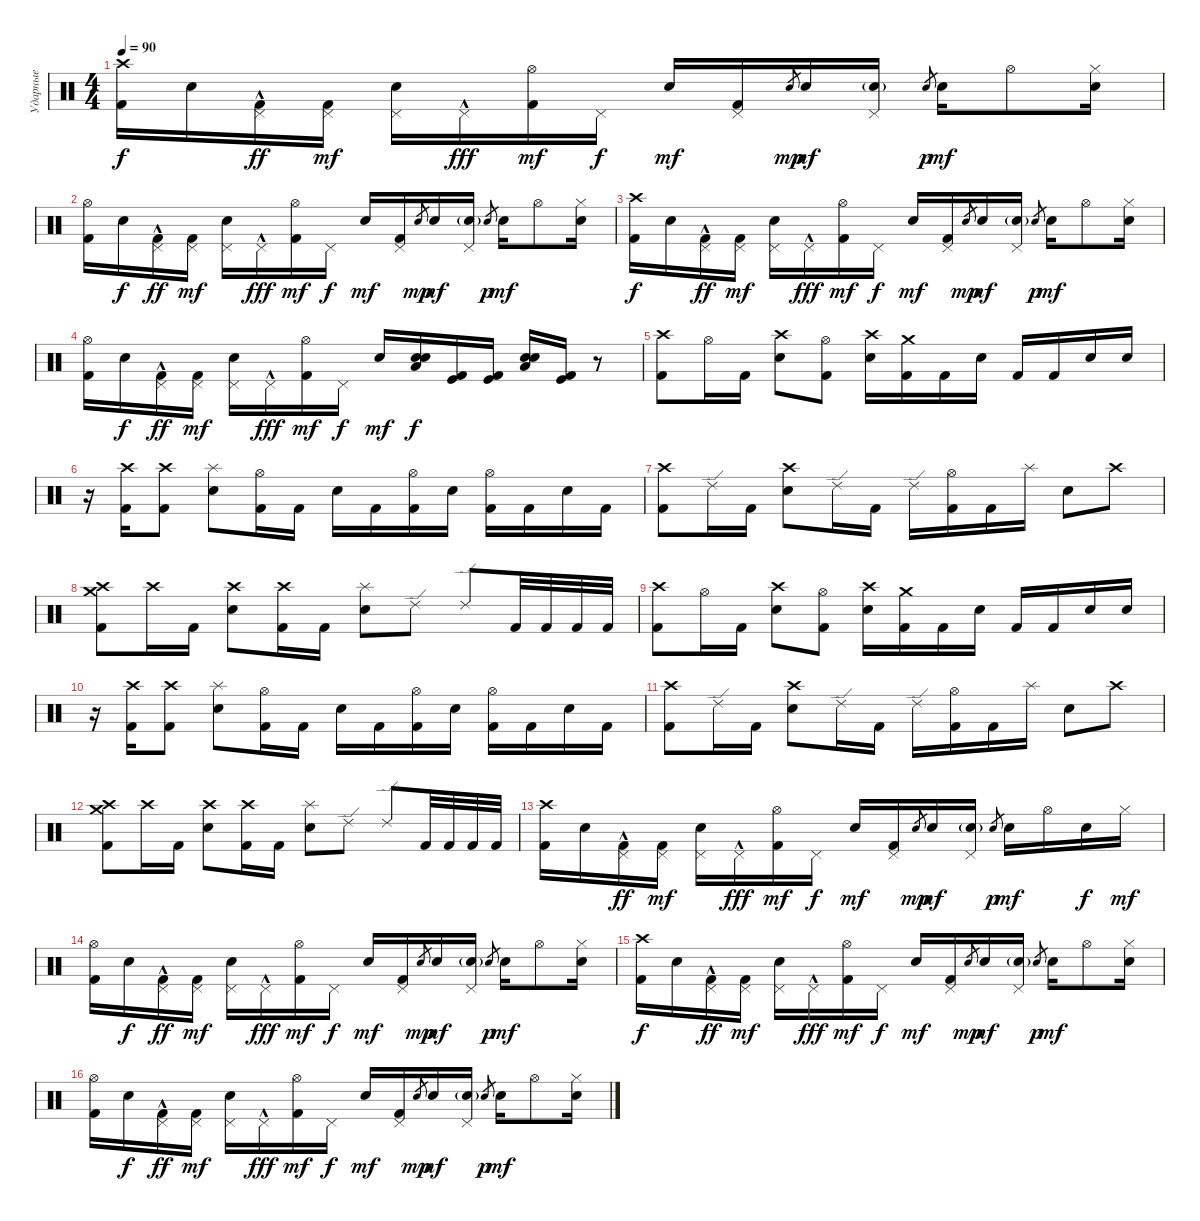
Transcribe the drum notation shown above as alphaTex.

\track ("Ударные" "Ударные") {instrument percussion}
\staff {score}
\articulation defaults
\ts (4 4)
\tempo 90
\clef neutral
\ks c
("Kick (hit) 2" "Crash high (hit)").16{dy f} "Electric Snare (hit)".16 ("Kick (hit) 2" "Pedal Hi-Hat (hit)"{hac}).16{dy ff} ("Kick (hit) 2" "Pedal Hi-Hat (hit)").16{dy mf} ("Electric Snare (hit)" "Pedal Hi-Hat (hit)").16 "Pedal Hi-Hat (hit)"{hac}.16{dy fff} ("Kick (hit) 2" "Hi-Hat (open)").16{dy mf} "Pedal Hi-Hat (hit)".16{dy f} "Electric Snare (hit)".16{dy mf} ("Kick (hit) 2" "Pedal Hi-Hat (hit)").16 "Electric Snare (hit)".8{gr dy mp} "Electric Snare (hit)".16{dy mf} ("Electric Snare (hit)"{g} "Pedal Hi-Hat (hit)").16 "Electric Snare (hit)".8{gr dy p} "Electric Snare (hit)".16{dy mf} "Hi-Hat (open)".8 ("Electric Snare (hit)" "Hi-Hat (closed)").16 |
("Kick (hit) 2" "Hi-Hat (open)").16 "Electric Snare (hit)".16{dy f} ("Kick (hit) 2" "Pedal Hi-Hat (hit)"{hac}).16{dy ff} ("Kick (hit) 2" "Pedal Hi-Hat (hit)").16{dy mf} ("Electric Snare (hit)" "Pedal Hi-Hat (hit)").16 "Pedal Hi-Hat (hit)"{hac}.16{dy fff} ("Kick (hit) 2" "Hi-Hat (open)").16{dy mf} "Pedal Hi-Hat (hit)".16{dy f} "Electric Snare (hit)".16{dy mf} ("Kick (hit) 2" "Pedal Hi-Hat (hit)").16 "Electric Snare (hit)".8{gr dy mp} "Electric Snare (hit)".16{dy mf} ("Electric Snare (hit)"{g} "Pedal Hi-Hat (hit)").16 "Electric Snare (hit)".8{gr dy p} "Electric Snare (hit)".16{dy mf} "Hi-Hat (open)".8 ("Electric Snare (hit)" "Hi-Hat (closed)").16 |
("Kick (hit) 2" "Crash high (hit)").16{dy f} "Electric Snare (hit)".16 ("Kick (hit) 2" "Pedal Hi-Hat (hit)"{hac}).16{dy ff} ("Kick (hit) 2" "Pedal Hi-Hat (hit)").16{dy mf} ("Electric Snare (hit)" "Pedal Hi-Hat (hit)").16 "Pedal Hi-Hat (hit)"{hac}.16{dy fff} ("Kick (hit) 2" "Hi-Hat (open)").16{dy mf} "Pedal Hi-Hat (hit)".16{dy f} "Electric Snare (hit)".16{dy mf} ("Kick (hit) 2" "Pedal Hi-Hat (hit)").16 "Electric Snare (hit)".8{gr dy mp} "Electric Snare (hit)".16{dy mf} ("Electric Snare (hit)"{g} "Pedal Hi-Hat (hit)").16 "Electric Snare (hit)".8{gr dy p} "Electric Snare (hit)".16{dy mf} "Hi-Hat (open)".8 ("Electric Snare (hit)" "Hi-Hat (closed)").16 |
("Kick (hit) 2" "Hi-Hat (open)").16 "Electric Snare (hit)".16{dy f} ("Kick (hit) 2" "Pedal Hi-Hat (hit)"{hac}).16{dy ff} ("Kick (hit) 2" "Pedal Hi-Hat (hit)").16{dy mf} ("Electric Snare (hit)" "Pedal Hi-Hat (hit)").16 "Pedal Hi-Hat (hit)"{hac}.16{dy fff} ("Kick (hit) 2" "Hi-Hat (open)").16{dy mf} "Pedal Hi-Hat (hit)".16{dy f} "Electric Snare (hit)".16{dy mf} ("Snare (hit) 2" "Low Floor Tom (hit)" "Electric Snare (hit)").16{dy f} ("Kick (hit) 2" "Kick (hit)").16 ("Kick (hit) 2" "Kick (hit)").16 ("Snare (hit) 2" "Low Floor Tom (hit)" "Electric Snare (hit)").16 ("Kick (hit) 2" "Kick (hit)").16 r.8 |
("Kick (hit) 2" "Crash high (hit)").8 "Hi-Hat (open)".16 "Kick (hit) 2".16 ("Electric Snare (hit)" "Crash high (hit)").8 ("Kick (hit) 2" "Hi-Hat (open)").8 ("Electric Snare (hit)" "Crash high (hit)").16 ("Kick (hit) 2" "Crash medium (hit)").16 "Kick (hit) 2".16 "Electric Snare (hit)".16 "Kick (hit) 2".16 "Kick (hit) 2".16 "Electric Snare (hit)".16 "Electric Snare (hit)".16 |
r.16 ("Kick (hit) 2" "Crash high (hit)").16 ("Kick (hit) 2" "Crash high (hit)").8 ("Electric Snare (hit)" "Splash (hit)").8 ("Kick (hit) 2" "Hi-Hat (open)").16 "Kick (hit) 2".16 "Electric Snare (hit)".16 "Kick (hit) 2".16 ("Kick (hit) 2" "Hi-Hat (open)").16 "Electric Snare (hit)".16 ("Kick (hit) 2" "Hi-Hat (open)").16 "Kick (hit) 2".16 "Electric Snare (hit)".16 "Kick (hit) 2".16 |
("Kick (hit) 2" "Crash high (hit)").8 "Ride (edge) 2".16 "Kick (hit) 2".16 ("Electric Snare (hit)" "Crash high (hit)").8 "Ride (edge) 2".16 "Kick (hit) 2".16 "Ride (edge) 2".16 ("Kick (hit) 2" "Hi-Hat (open)").16 "Kick (hit) 2".16 "Splash (hit)".16 "Electric Snare (hit)".8 "Crash high (hit)".8 |
("Kick (hit) 2" "Crash medium (hit)" "Crash high (hit)").8 "Crash high (hit)".16 "Kick (hit) 2".16 ("Electric Snare (hit)" "Crash high (hit)").8 ("Kick (hit) 2" "Crash high (hit)").16 "Kick (hit) 2".16 ("Electric Snare (hit)" "Splash (hit)").8 "Ride (edge) 2".8 "Ride (edge) 2".8 "Kick (hit) 2".32 "Kick (hit) 2".32 "Kick (hit) 2".32 "Kick (hit) 2".32 |
("Kick (hit) 2" "Crash high (hit)").8 "Hi-Hat (open)".16 "Kick (hit) 2".16 ("Electric Snare (hit)" "Crash high (hit)").8 ("Kick (hit) 2" "Hi-Hat (open)").8 ("Electric Snare (hit)" "Crash high (hit)").16 ("Kick (hit) 2" "Crash medium (hit)").16 "Kick (hit) 2".16 "Electric Snare (hit)".16 "Kick (hit) 2".16 "Kick (hit) 2".16 "Electric Snare (hit)".16 "Electric Snare (hit)".16 |
r.16 ("Kick (hit) 2" "Crash high (hit)").16 ("Kick (hit) 2" "Crash high (hit)").8 ("Electric Snare (hit)" "Splash (hit)").8 ("Kick (hit) 2" "Hi-Hat (open)").16 "Kick (hit) 2".16 "Electric Snare (hit)".16 "Kick (hit) 2".16 ("Kick (hit) 2" "Hi-Hat (open)").16 "Electric Snare (hit)".16 ("Kick (hit) 2" "Hi-Hat (open)").16 "Kick (hit) 2".16 "Electric Snare (hit)".16 "Kick (hit) 2".16 |
("Kick (hit) 2" "Crash high (hit)").8 "Ride (edge) 2".16 "Kick (hit) 2".16 ("Electric Snare (hit)" "Crash high (hit)").8 "Ride (edge) 2".16 "Kick (hit) 2".16 "Ride (edge) 2".16 ("Kick (hit) 2" "Hi-Hat (open)").16 "Kick (hit) 2".16 "Splash (hit)".16 "Electric Snare (hit)".8 "Crash high (hit)".8 |
("Kick (hit) 2" "Crash medium (hit)" "Crash high (hit)").8 "Crash high (hit)".16 "Kick (hit) 2".16 ("Electric Snare (hit)" "Crash high (hit)").8 ("Kick (hit) 2" "Crash high (hit)").16 "Kick (hit) 2".16 ("Electric Snare (hit)" "Splash (hit)").8 "Ride (edge) 2".8 "Ride (edge) 2".8 "Kick (hit) 2".32 "Kick (hit) 2".32 "Kick (hit) 2".32 "Kick (hit) 2".32 |
("Kick (hit) 2" "Crash high (hit)").16 "Electric Snare (hit)".16 ("Kick (hit) 2" "Pedal Hi-Hat (hit)"{hac}).16{dy ff} ("Kick (hit) 2" "Pedal Hi-Hat (hit)").16{dy mf} ("Electric Snare (hit)" "Pedal Hi-Hat (hit)").16 "Pedal Hi-Hat (hit)"{hac}.16{dy fff} ("Kick (hit) 2" "Hi-Hat (open)").16{dy mf} "Pedal Hi-Hat (hit)".16{dy f} "Electric Snare (hit)".16{dy mf} ("Kick (hit) 2" "Pedal Hi-Hat (hit)").16 "Electric Snare (hit)".8{gr dy mp} "Electric Snare (hit)".16{dy mf} ("Electric Snare (hit)"{g} "Pedal Hi-Hat (hit)").16 "Electric Snare (hit)".8{gr dy p} "Electric Snare (hit)".16{dy mf} "Hi-Hat (open)".16 "Electric Snare (hit)".16{dy f} "Hi-Hat (closed)".16{dy mf} |
("Kick (hit) 2" "Hi-Hat (open)").16 "Electric Snare (hit)".16{dy f} ("Kick (hit) 2" "Pedal Hi-Hat (hit)"{hac}).16{dy ff} ("Kick (hit) 2" "Pedal Hi-Hat (hit)").16{dy mf} ("Electric Snare (hit)" "Pedal Hi-Hat (hit)").16 "Pedal Hi-Hat (hit)"{hac}.16{dy fff} ("Kick (hit) 2" "Hi-Hat (open)").16{dy mf} "Pedal Hi-Hat (hit)".16{dy f} "Electric Snare (hit)".16{dy mf} ("Kick (hit) 2" "Pedal Hi-Hat (hit)").16 "Electric Snare (hit)".8{gr dy mp} "Electric Snare (hit)".16{dy mf} ("Electric Snare (hit)"{g} "Pedal Hi-Hat (hit)").16 "Electric Snare (hit)".8{gr dy p} "Electric Snare (hit)".16{dy mf} "Hi-Hat (open)".8 ("Electric Snare (hit)" "Hi-Hat (closed)").16 |
("Kick (hit) 2" "Crash high (hit)").16{dy f} "Electric Snare (hit)".16 ("Kick (hit) 2" "Pedal Hi-Hat (hit)"{hac}).16{dy ff} ("Kick (hit) 2" "Pedal Hi-Hat (hit)").16{dy mf} ("Electric Snare (hit)" "Pedal Hi-Hat (hit)").16 "Pedal Hi-Hat (hit)"{hac}.16{dy fff} ("Kick (hit) 2" "Hi-Hat (open)").16{dy mf} "Pedal Hi-Hat (hit)".16{dy f} "Electric Snare (hit)".16{dy mf} ("Kick (hit) 2" "Pedal Hi-Hat (hit)").16 "Electric Snare (hit)".8{gr dy mp} "Electric Snare (hit)".16{dy mf} ("Electric Snare (hit)"{g} "Pedal Hi-Hat (hit)").16 "Electric Snare (hit)".8{gr dy p} "Electric Snare (hit)".16{dy mf} "Hi-Hat (open)".8 ("Electric Snare (hit)" "Hi-Hat (closed)").16 |
("Kick (hit) 2" "Hi-Hat (open)").16 "Electric Snare (hit)".16{dy f} ("Kick (hit) 2" "Pedal Hi-Hat (hit)"{hac}).16{dy ff} ("Kick (hit) 2" "Pedal Hi-Hat (hit)").16{dy mf} ("Electric Snare (hit)" "Pedal Hi-Hat (hit)").16 "Pedal Hi-Hat (hit)"{hac}.16{dy fff} ("Kick (hit) 2" "Hi-Hat (open)").16{dy mf} "Pedal Hi-Hat (hit)".16{dy f} "Electric Snare (hit)".16{dy mf} ("Kick (hit) 2" "Pedal Hi-Hat (hit)").16 "Electric Snare (hit)".8{gr dy mp} "Electric Snare (hit)".16{dy mf} ("Electric Snare (hit)"{g} "Pedal Hi-Hat (hit)").16 "Electric Snare (hit)".8{gr dy p} "Electric Snare (hit)".16{dy mf} "Hi-Hat (open)".8 ("Electric Snare (hit)" "Hi-Hat (closed)").16
